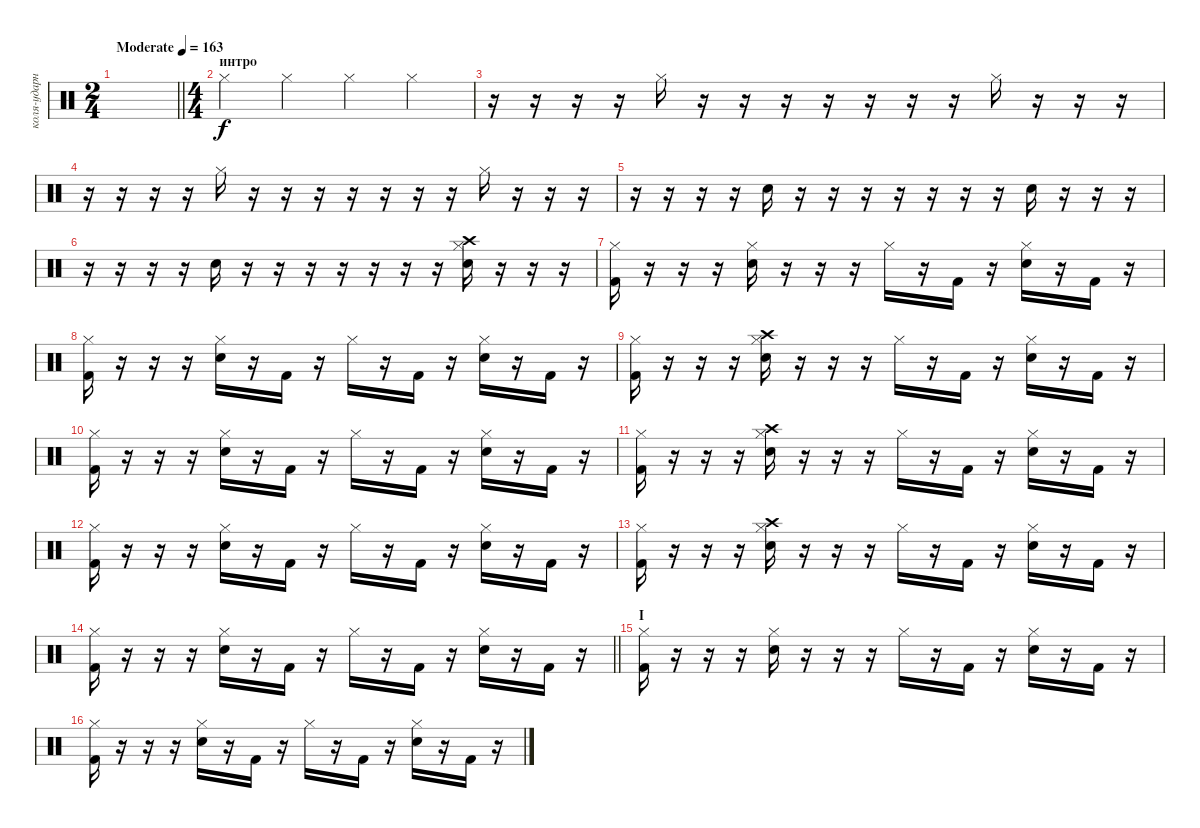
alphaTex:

\track ("коля-ударные" "коля-ударн") {instrument percussion}
\staff {score}
\articulation defaults
\ts (2 4)
\tempo (163 "Moderate")
\clef neutral
\barLineRight lightlight
\ks c
|
\ts (4 4)
\section ("" "интро")
"Hi-Hat (closed)".4 "Hi-Hat (closed)".4 "Hi-Hat (closed)".4 "Hi-Hat (closed)".4 |
r.16 r.16 r.16 r.16 "Hi-Hat (closed)".16 r.16 r.16 r.16 r.16 r.16 r.16 r.16 "Hi-Hat (closed)".16 r.16 r.16 r.16 |
r.16 r.16 r.16 r.16 "Hi-Hat (closed)".16 r.16 r.16 r.16 r.16 r.16 r.16 r.16 "Hi-Hat (closed)".16 r.16 r.16 r.16 |
r.16 r.16 r.16 r.16 "Electric Snare (hit)".16 r.16 r.16 r.16 r.16 r.16 r.16 r.16 "Electric Snare (hit)".16 r.16 r.16 r.16 |
r.16 r.16 r.16 r.16 "Electric Snare (hit)".16 r.16 r.16 r.16 r.16 r.16 r.16 r.16 ("Electric Snare (hit)" "Crash high (hit)" "Hi-Hat (closed)").16 r.16 r.16 r.16 |
("Kick (hit) 2" "Hi-Hat (closed)").16 r.16 r.16 r.16 ("Electric Snare (hit)" "Hi-Hat (closed)").16 r.16 r.16 r.16 "Hi-Hat (closed)".16 r.16 "Kick (hit) 2".16 r.16 ("Electric Snare (hit)" "Hi-Hat (closed)").16 r.16 "Kick (hit) 2".16 r.16 |
("Kick (hit) 2" "Hi-Hat (closed)").16 r.16 r.16 r.16 ("Electric Snare (hit)" "Hi-Hat (closed)").16 r.16 "Kick (hit) 2".16 r.16 "Hi-Hat (closed)".16 r.16 "Kick (hit) 2".16 r.16 ("Electric Snare (hit)" "Hi-Hat (closed)").16 r.16 "Kick (hit) 2".16 r.16 |
("Kick (hit) 2" "Hi-Hat (closed)").16 r.16 r.16 r.16 ("Electric Snare (hit)" "Crash high (hit)" "Hi-Hat (closed)").16 r.16 r.16 r.16 "Hi-Hat (closed)".16 r.16 "Kick (hit) 2".16 r.16 ("Electric Snare (hit)" "Hi-Hat (closed)").16 r.16 "Kick (hit) 2".16 r.16 |
("Kick (hit) 2" "Hi-Hat (closed)").16 r.16 r.16 r.16 ("Electric Snare (hit)" "Hi-Hat (closed)").16 r.16 "Kick (hit) 2".16 r.16 "Hi-Hat (closed)".16 r.16 "Kick (hit) 2".16 r.16 ("Electric Snare (hit)" "Hi-Hat (closed)").16 r.16 "Kick (hit) 2".16 r.16 |
("Kick (hit) 2" "Hi-Hat (closed)").16 r.16 r.16 r.16 ("Electric Snare (hit)" "Crash high (hit)" "Hi-Hat (closed)").16 r.16 r.16 r.16 "Hi-Hat (closed)".16 r.16 "Kick (hit) 2".16 r.16 ("Electric Snare (hit)" "Hi-Hat (closed)").16 r.16 "Kick (hit) 2".16 r.16 |
("Kick (hit) 2" "Hi-Hat (closed)").16 r.16 r.16 r.16 ("Electric Snare (hit)" "Hi-Hat (closed)").16 r.16 "Kick (hit) 2".16 r.16 "Hi-Hat (closed)".16 r.16 "Kick (hit) 2".16 r.16 ("Electric Snare (hit)" "Hi-Hat (closed)").16 r.16 "Kick (hit) 2".16 r.16 |
("Kick (hit) 2" "Hi-Hat (closed)").16 r.16 r.16 r.16 ("Electric Snare (hit)" "Crash high (hit)" "Hi-Hat (closed)").16 r.16 r.16 r.16 "Hi-Hat (closed)".16 r.16 "Kick (hit) 2".16 r.16 ("Electric Snare (hit)" "Hi-Hat (closed)").16 r.16 "Kick (hit) 2".16 r.16 |
\barLineRight lightlight
("Kick (hit) 2" "Hi-Hat (closed)").16 r.16 r.16 r.16 ("Electric Snare (hit)" "Hi-Hat (closed)").16 r.16 "Kick (hit) 2".16 r.16 "Hi-Hat (closed)".16 r.16 "Kick (hit) 2".16 r.16 ("Electric Snare (hit)" "Hi-Hat (closed)").16 r.16 "Kick (hit) 2".16 r.16 |
\section ("" "I")
("Kick (hit) 2" "Hi-Hat (closed)").16 r.16 r.16 r.16 ("Electric Snare (hit)" "Hi-Hat (closed)").16 r.16 r.16 r.16 "Hi-Hat (closed)".16 r.16 "Kick (hit) 2".16 r.16 ("Electric Snare (hit)" "Hi-Hat (closed)").16 r.16 "Kick (hit) 2".16 r.16 |
("Kick (hit) 2" "Hi-Hat (closed)").16 r.16 r.16 r.16 ("Electric Snare (hit)" "Hi-Hat (closed)").16 r.16 "Kick (hit) 2".16 r.16 "Hi-Hat (closed)".16 r.16 "Kick (hit) 2".16 r.16 ("Electric Snare (hit)" "Hi-Hat (closed)").16 r.16 "Kick (hit) 2".16 r.16
